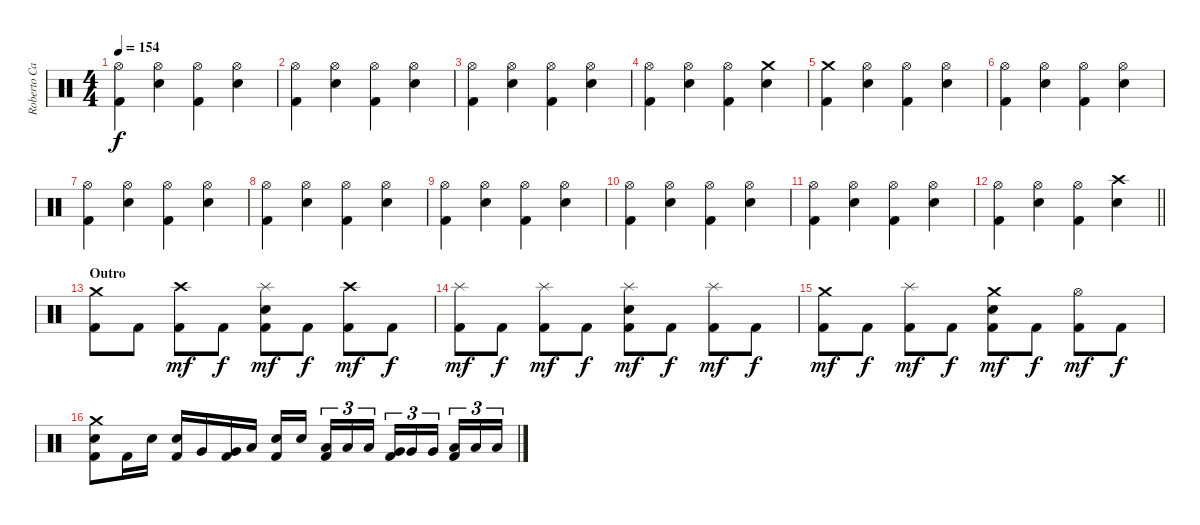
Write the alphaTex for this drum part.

\track ("Roberto Cappa - Drums" "Roberto Ca") {instrument percussion}
\staff
\articulation defaults
\ts (4 4)
\tempo 154
\clef neutral
\ks c
("Hi-Hat (open)" "Kick (hit) 2").4{dy f} ("Hi-Hat (open)" "Electric Snare (hit)").4 ("Hi-Hat (open)" "Kick (hit) 2").4 ("Hi-Hat (open)" "Electric Snare (hit)").4 |
("Hi-Hat (open)" "Kick (hit) 2").4 ("Hi-Hat (open)" "Electric Snare (hit)").4 ("Hi-Hat (open)" "Kick (hit) 2").4 ("Hi-Hat (open)" "Electric Snare (hit)").4 |
("Hi-Hat (open)" "Kick (hit) 2").4 ("Hi-Hat (open)" "Electric Snare (hit)").4 ("Hi-Hat (open)" "Kick (hit) 2").4 ("Hi-Hat (open)" "Electric Snare (hit)").4 |
("Hi-Hat (open)" "Kick (hit) 2").4 ("Hi-Hat (open)" "Electric Snare (hit)").4 ("Hi-Hat (open)" "Kick (hit) 2").4 ("Crash medium (hit)" "Electric Snare (hit)").4 |
("Crash medium (hit)" "Kick (hit) 2").4 ("Hi-Hat (open)" "Electric Snare (hit)").4 ("Hi-Hat (open)" "Kick (hit) 2").4 ("Hi-Hat (open)" "Electric Snare (hit)").4 |
("Hi-Hat (open)" "Kick (hit) 2").4 ("Hi-Hat (open)" "Electric Snare (hit)").4 ("Hi-Hat (open)" "Kick (hit) 2").4 ("Hi-Hat (open)" "Electric Snare (hit)").4 |
("Hi-Hat (open)" "Kick (hit) 2").4 ("Hi-Hat (open)" "Electric Snare (hit)").4 ("Hi-Hat (open)" "Kick (hit) 2").4 ("Hi-Hat (open)" "Electric Snare (hit)").4 |
("Hi-Hat (open)" "Kick (hit) 2").4 ("Hi-Hat (open)" "Electric Snare (hit)").4 ("Hi-Hat (open)" "Kick (hit) 2").4 ("Hi-Hat (open)" "Electric Snare (hit)").4 |
("Hi-Hat (open)" "Kick (hit) 2").4 ("Hi-Hat (open)" "Electric Snare (hit)").4 ("Hi-Hat (open)" "Kick (hit) 2").4 ("Hi-Hat (open)" "Electric Snare (hit)").4 |
("Hi-Hat (open)" "Kick (hit) 2").4 ("Hi-Hat (open)" "Electric Snare (hit)").4 ("Hi-Hat (open)" "Kick (hit) 2").4 ("Hi-Hat (open)" "Electric Snare (hit)").4 |
("Hi-Hat (open)" "Kick (hit) 2").4 ("Hi-Hat (open)" "Electric Snare (hit)").4 ("Hi-Hat (open)" "Kick (hit) 2").4 ("Hi-Hat (open)" "Electric Snare (hit)").4 |
\barLineRight lightlight
("Hi-Hat (open)" "Kick (hit) 2").4 ("Hi-Hat (open)" "Electric Snare (hit)").4 ("Hi-Hat (open)" "Kick (hit) 2").4 ("Crash high (hit)" "Electric Snare (hit)").4 |
\section ("" "Outro")
("Crash medium (hit)" "Kick (hit) 2").8 "Kick (hit) 2".8 ("Crash high (hit)" "Kick (hit) 2").8{dy mf} "Kick (hit) 2".8{dy f} ("Splash (hit)" "Kick (hit) 2" "Electric Snare (hit)").8{dy mf} "Kick (hit) 2".8{dy f} ("Crash high (hit)" "Kick (hit) 2").8{dy mf} "Kick (hit) 2".8{dy f} |
("Splash (hit)" "Kick (hit) 2").8{dy mf} "Kick (hit) 2".8{dy f} ("Splash (hit)" "Kick (hit) 2").8{dy mf} "Kick (hit) 2".8{dy f} ("Splash (hit)" "Kick (hit) 2" "Electric Snare (hit)").8{dy mf} "Kick (hit) 2".8{dy f} ("Splash (hit)" "Kick (hit) 2").8{dy mf} "Kick (hit) 2".8{dy f} |
("Crash medium (hit)" "Kick (hit) 2").8{dy mf} "Kick (hit) 2".8{dy f} ("Splash (hit)" "Kick (hit) 2").8{dy mf} "Kick (hit) 2".8{dy f} ("Crash medium (hit)" "Kick (hit) 2" "Electric Snare (hit)").8{dy mf} "Kick (hit) 2".8{dy f} ("Hi-Hat (open)" "Kick (hit) 2").8{dy mf} "Kick (hit) 2".8{dy f} |
("Crash medium (hit)" "Electric Snare (hit)" "Kick (hit) 2").8 "Kick (hit) 2".16 "Electric Snare (hit)".16 ("Electric Snare (hit)" "Kick (hit) 2").16 "Very Low Tom (hit)".16 ("Very Low Tom (hit)" "Kick (hit) 2").16 "Low Floor Tom (hit)".16 ("Electric Snare (hit)" "Kick (hit) 2").16 "Electric Snare (hit)".16{beam splitsecondary} ("Low Tom (hit)" "Kick (hit) 2").16{tu (3 2)} "Low Tom (hit)".16{tu (3 2)} "Low Tom (hit)".16{tu (3 2)} ("Very Low Tom (hit)" "Kick (hit) 2").16{tu (3 2)} "Very Low Tom (hit)".16{tu (3 2)} "Very Low Tom (hit)".16{tu (3 2) beam splitsecondary} ("Low Floor Tom (hit)" "Kick (hit) 2").16{tu (3 2)} "Low Floor Tom (hit)".16{tu (3 2)} "Low Floor Tom (hit)".16{tu (3 2)}
